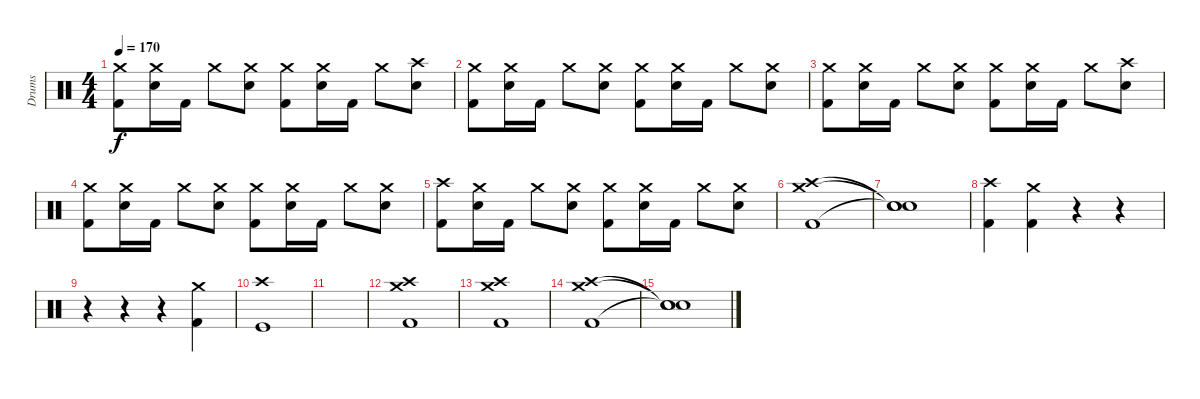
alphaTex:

\track ("Drums" "Drums") {instrument percussion}
\staff {score}
\articulation defaults
\ts (4 4)
\tempo 170
\clef neutral
\ks c
("Crash medium (hit)" "Kick (hit) 2").8{dy f} ("Crash medium (hit)" "Electric Snare (hit)").16 "Kick (hit) 2".16 "Crash medium (hit)".8 ("Crash medium (hit)" "Electric Snare (hit)").8 ("Crash medium (hit)" "Kick (hit) 2").8 ("Crash medium (hit)" "Electric Snare (hit)").16 "Kick (hit) 2".16 "Crash medium (hit)".8 ("Crash high (hit)" "Electric Snare (hit)").8 |
("Crash medium (hit)" "Kick (hit) 2").8 ("Crash medium (hit)" "Electric Snare (hit)").16 "Kick (hit) 2".16 "Crash medium (hit)".8 ("Crash medium (hit)" "Electric Snare (hit)").8 ("Crash medium (hit)" "Kick (hit) 2").8 ("Crash medium (hit)" "Electric Snare (hit)").16 "Kick (hit) 2".16 "Crash medium (hit)".8 ("Crash medium (hit)" "Electric Snare (hit)").8 |
("Crash medium (hit)" "Kick (hit) 2").8 ("Crash medium (hit)" "Electric Snare (hit)").16 "Kick (hit) 2".16 "Crash medium (hit)".8 ("Crash medium (hit)" "Electric Snare (hit)").8 ("Crash medium (hit)" "Kick (hit) 2").8 ("Crash medium (hit)" "Electric Snare (hit)").16 "Kick (hit) 2".16 "Crash medium (hit)".8 ("Crash high (hit)" "Electric Snare (hit)").8 |
("Crash medium (hit)" "Kick (hit) 2").8 ("Crash medium (hit)" "Electric Snare (hit)").16 "Kick (hit) 2".16 "Crash medium (hit)".8 ("Crash medium (hit)" "Electric Snare (hit)").8 ("Crash medium (hit)" "Kick (hit) 2").8 ("Crash medium (hit)" "Electric Snare (hit)").16 "Kick (hit) 2".16 "Crash medium (hit)".8 ("Crash medium (hit)" "Electric Snare (hit)").8 |
("Crash high (hit)" "Kick (hit) 2").8 ("Crash medium (hit)" "Electric Snare (hit)").16 "Kick (hit) 2".16 "Crash medium (hit)".8 ("Crash medium (hit)" "Electric Snare (hit)").8 ("Crash medium (hit)" "Kick (hit) 2").8 ("Crash medium (hit)" "Electric Snare (hit)").16 "Kick (hit) 2".16 "Crash medium (hit)".8 ("Crash medium (hit)" "Electric Snare (hit)").8 |
("Crash high (hit)" "Crash medium (hit)" "Kick (hit) 2").1 |
("Snare (hit)"{t} "Snare (hit)"{t} "Snare (hit)"{t}).1 |
("Crash high (hit)" "Kick (hit) 2").4 ("Crash medium (hit)" "Kick (hit) 2").4 r.4 r.4 |
r.4 r.4 r.4 ("Crash medium (hit)" "Kick (hit) 2").4 |
("Crash high (hit)" "Kick (hit)").1 |
|
("Crash high (hit)" "Crash medium (hit)" "Kick (hit) 2").1 |
("Crash high (hit)" "Crash medium (hit)" "Kick (hit) 2").1 |
("Crash high (hit)" "Crash medium (hit)" "Kick (hit) 2").1 |
("Snare (hit)"{t} "Snare (hit)"{t} "Snare (hit)"{t}).1
